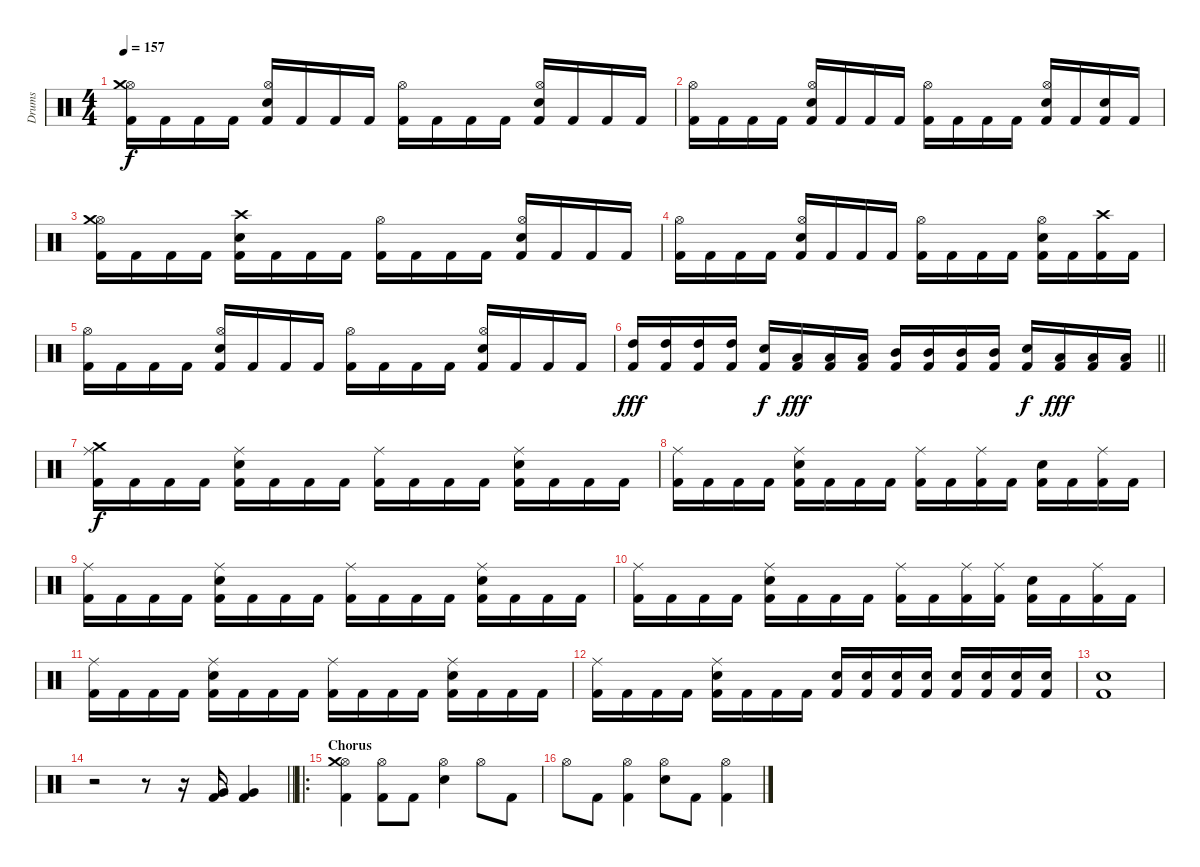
\track ("Drums" "Drums") {instrument percussion}
\staff {score}
\articulation defaults
\ts (4 4)
\tempo 157
\clef neutral
\ks c
("Kick (hit) 2" "Hi-Hat (open)" "Crash medium (hit)").16{dy f} "Kick (hit) 2".16 "Kick (hit) 2".16 "Kick (hit) 2".16 ("Kick (hit) 2" "Electric Snare (hit)" "Hi-Hat (open)").16 "Kick (hit) 2".16 "Kick (hit) 2".16 "Kick (hit) 2".16 ("Kick (hit) 2" "Hi-Hat (open)").16 "Kick (hit) 2".16 "Kick (hit) 2".16 "Kick (hit) 2".16 ("Kick (hit) 2" "Electric Snare (hit)" "Hi-Hat (open)").16 "Kick (hit) 2".16 "Kick (hit) 2".16 "Kick (hit) 2".16 |
("Kick (hit) 2" "Hi-Hat (open)").16 "Kick (hit) 2".16 "Kick (hit) 2".16 "Kick (hit) 2".16 ("Kick (hit) 2" "Electric Snare (hit)" "Hi-Hat (open)").16 "Kick (hit) 2".16 "Kick (hit) 2".16 "Kick (hit) 2".16 ("Kick (hit) 2" "Hi-Hat (open)").16 "Kick (hit) 2".16 "Kick (hit) 2".16 "Kick (hit) 2".16 ("Kick (hit) 2" "Electric Snare (hit)" "Hi-Hat (open)").16 "Kick (hit) 2".16 ("Kick (hit) 2" "Electric Snare (hit)").16 "Kick (hit) 2".16 |
("Kick (hit) 2" "Hi-Hat (open)" "Crash medium (hit)").16 "Kick (hit) 2".16 "Kick (hit) 2".16 "Kick (hit) 2".16 ("Kick (hit) 2" "Electric Snare (hit)" "Crash high (hit)").16 "Kick (hit) 2".16 "Kick (hit) 2".16 "Kick (hit) 2".16 ("Kick (hit) 2" "Hi-Hat (open)").16 "Kick (hit) 2".16 "Kick (hit) 2".16 "Kick (hit) 2".16 ("Kick (hit) 2" "Electric Snare (hit)" "Hi-Hat (open)").16 "Kick (hit) 2".16 "Kick (hit) 2".16 "Kick (hit) 2".16 |
("Kick (hit) 2" "Hi-Hat (open)").16 "Kick (hit) 2".16 "Kick (hit) 2".16 "Kick (hit) 2".16 ("Kick (hit) 2" "Electric Snare (hit)" "Hi-Hat (open)").16 "Kick (hit) 2".16 "Kick (hit) 2".16 "Kick (hit) 2".16 ("Kick (hit) 2" "Hi-Hat (open)").16 "Kick (hit) 2".16 "Kick (hit) 2".16 "Kick (hit) 2".16 ("Kick (hit) 2" "Electric Snare (hit)" "Hi-Hat (open)").16 "Kick (hit) 2".16 ("Kick (hit) 2" "Crash high (hit)").16 "Kick (hit) 2".16 |
("Kick (hit) 2" "Hi-Hat (open)").16 "Kick (hit) 2".16 "Kick (hit) 2".16 "Kick (hit) 2".16 ("Kick (hit) 2" "Electric Snare (hit)" "Hi-Hat (open)").16 "Kick (hit) 2".16 "Kick (hit) 2".16 "Kick (hit) 2".16 ("Kick (hit) 2" "Hi-Hat (open)").16 "Kick (hit) 2".16 "Kick (hit) 2".16 "Kick (hit) 2".16 ("Kick (hit) 2" "Electric Snare (hit)" "Hi-Hat (open)").16 "Kick (hit) 2".16 "Kick (hit) 2".16 "Kick (hit) 2".16 |
\barLineRight lightlight
("Kick (hit) 2" "High Tom (hit)").16{dy fff} ("Kick (hit) 2" "High Tom (hit)").16 ("Kick (hit) 2" "High Tom (hit)").16 ("Kick (hit) 2" "High Tom (hit)").16 ("Kick (hit) 2" "Electric Snare (hit)").16{dy f} ("Kick (hit) 2" "Low Tom (hit)").16{dy fff} ("Kick (hit) 2" "Low Tom (hit)").16 ("Kick (hit) 2" "Low Tom (hit)").16 ("Kick (hit) 2" "Mid Tom (hit)").16 ("Kick (hit) 2" "Mid Tom (hit)").16 ("Kick (hit) 2" "Mid Tom (hit)").16 ("Kick (hit) 2" "Mid Tom (hit)").16 ("Kick (hit) 2" "Electric Snare (hit)").16{dy f} ("Kick (hit) 2" "Low Tom (hit)").16{dy fff} ("Kick (hit) 2" "Low Tom (hit)").16 ("Kick (hit) 2" "Low Tom (hit)").16 |
("Kick (hit) 2" "Ride (middle)" "Crash medium (hit)").16{dy f} "Kick (hit) 2".16 "Kick (hit) 2".16 "Kick (hit) 2".16 ("Kick (hit) 2" "Electric Snare (hit)" "Ride (middle)").16 "Kick (hit) 2".16 "Kick (hit) 2".16 "Kick (hit) 2".16 ("Kick (hit) 2" "Ride (middle)").16 "Kick (hit) 2".16 "Kick (hit) 2".16 "Kick (hit) 2".16 ("Kick (hit) 2" "Electric Snare (hit)" "Ride (middle)").16 "Kick (hit) 2".16 "Kick (hit) 2".16 "Kick (hit) 2".16 |
("Kick (hit) 2" "Ride (middle)").16 "Kick (hit) 2".16 "Kick (hit) 2".16 "Kick (hit) 2".16 ("Kick (hit) 2" "Electric Snare (hit)" "Ride (middle)").16 "Kick (hit) 2".16 "Kick (hit) 2".16 "Kick (hit) 2".16 ("Kick (hit) 2" "Ride (middle)").16 "Kick (hit) 2".16 ("Kick (hit) 2" "Ride (middle)").16 "Kick (hit) 2".16 ("Kick (hit) 2" "Electric Snare (hit)").16 "Kick (hit) 2".16 ("Kick (hit) 2" "Ride (middle)").16 "Kick (hit) 2".16 |
("Kick (hit) 2" "Ride (middle)").16 "Kick (hit) 2".16 "Kick (hit) 2".16 "Kick (hit) 2".16 ("Kick (hit) 2" "Electric Snare (hit)" "Ride (middle)").16 "Kick (hit) 2".16 "Kick (hit) 2".16 "Kick (hit) 2".16 ("Kick (hit) 2" "Ride (middle)").16 "Kick (hit) 2".16 "Kick (hit) 2".16 "Kick (hit) 2".16 ("Kick (hit) 2" "Electric Snare (hit)" "Ride (middle)").16 "Kick (hit) 2".16 "Kick (hit) 2".16 "Kick (hit) 2".16 |
("Kick (hit) 2" "Ride (middle)").16 "Kick (hit) 2".16 "Kick (hit) 2".16 "Kick (hit) 2".16 ("Kick (hit) 2" "Electric Snare (hit)" "Ride (middle)").16 "Kick (hit) 2".16 "Kick (hit) 2".16 "Kick (hit) 2".16 ("Kick (hit) 2" "Ride (middle)").16 "Kick (hit) 2".16 ("Kick (hit) 2" "Ride (middle)").16 ("Kick (hit) 2" "Ride (middle)").16 ("Kick (hit) 2" "Electric Snare (hit)").16 "Kick (hit) 2".16 ("Kick (hit) 2" "Ride (middle)").16 "Kick (hit) 2".16 |
("Kick (hit) 2" "Ride (middle)").16 "Kick (hit) 2".16 "Kick (hit) 2".16 "Kick (hit) 2".16 ("Kick (hit) 2" "Electric Snare (hit)" "Ride (middle)").16 "Kick (hit) 2".16 "Kick (hit) 2".16 "Kick (hit) 2".16 ("Kick (hit) 2" "Ride (middle)").16 "Kick (hit) 2".16 "Kick (hit) 2".16 "Kick (hit) 2".16 ("Kick (hit) 2" "Electric Snare (hit)" "Ride (middle)").16 "Kick (hit) 2".16 "Kick (hit) 2".16 "Kick (hit) 2".16 |
("Kick (hit) 2" "Ride (middle)").16 "Kick (hit) 2".16 "Kick (hit) 2".16 "Kick (hit) 2".16 ("Kick (hit) 2" "Electric Snare (hit)" "Ride (middle)").16 "Kick (hit) 2".16 "Kick (hit) 2".16 "Kick (hit) 2".16 ("Kick (hit) 2" "Electric Snare (hit)").16 ("Kick (hit) 2" "Electric Snare (hit)").16 ("Kick (hit) 2" "Electric Snare (hit)").16 ("Kick (hit) 2" "Electric Snare (hit)").16 ("Kick (hit) 2" "Electric Snare (hit)").16 ("Kick (hit) 2" "Electric Snare (hit)").16 ("Kick (hit) 2" "Electric Snare (hit)").16 ("Kick (hit) 2" "Electric Snare (hit)").16 |
("Kick (hit) 2" "Electric Snare (hit)").1 |
\barLineRight lightlight
r.2 r.8 r.16 ("Kick (hit) 2" "Very Low Tom (hit)").16 ("Kick (hit) 2" "Very Low Tom (hit)").4 |
\ro
\section ("" "Chorus")
("Kick (hit) 2" "Hi-Hat (open)" "Crash medium (hit)").4 ("Kick (hit) 2" "Hi-Hat (open)").8 "Kick (hit) 2".8 ("Electric Snare (hit)" "Hi-Hat (open)").4 "Hi-Hat (open)".8 "Kick (hit) 2".8 |
"Hi-Hat (open)".8 "Kick (hit) 2".8 ("Kick (hit) 2" "Hi-Hat (open)").4 ("Electric Snare (hit)" "Hi-Hat (open)").8 "Kick (hit) 2".8 ("Kick (hit) 2" "Hi-Hat (open)").4
